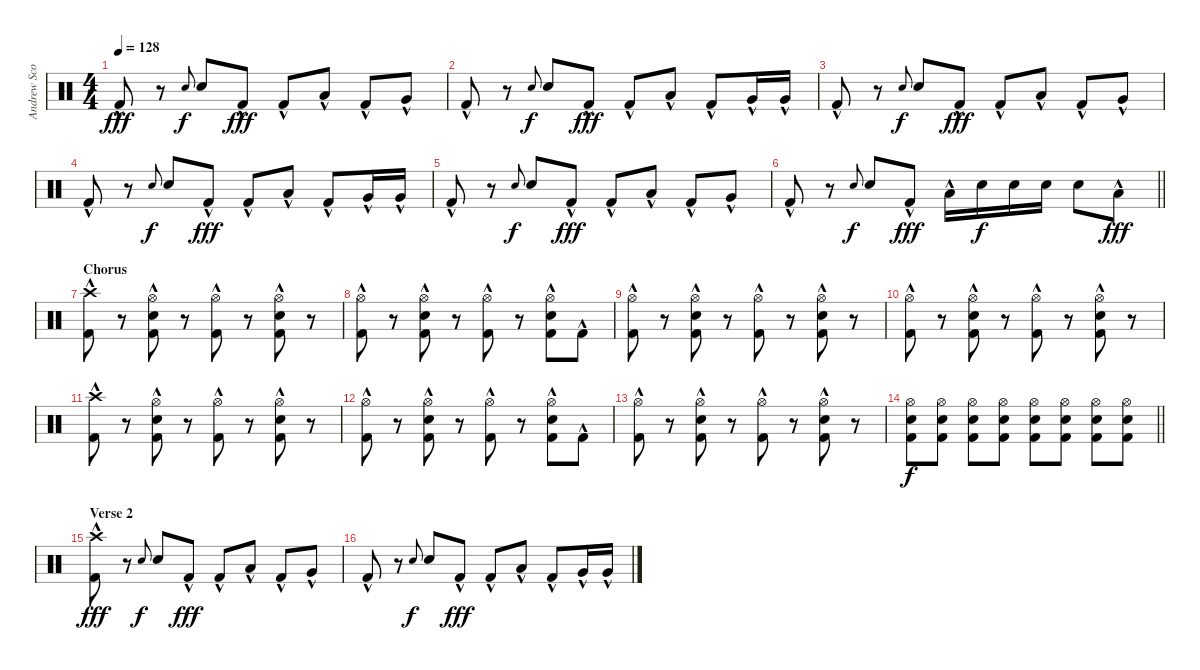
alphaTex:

\track ("Andrew Scott" "Andrew Sco") {instrument percussion}
\staff {score}
\articulation defaults
\ts (4 4)
\tempo 128
\clef neutral
\ks c "Kick (hit) 2"{hac}.8{dy fff}
r.8 "Snare (hit) 2".8{gr onbeat dy f} "Snare (hit) 2".8 "Kick (hit) 2"{hac}.8{dy fff} "Kick (hit) 2"{hac}.8 "Low Tom (hit)"{hac}.8 "Kick (hit) 2"{hac}.8 "Very Low Tom (hit)"{hac}.8 |
"Kick (hit) 2"{hac}.8 r.8 "Snare (hit) 2".8{gr onbeat dy f} "Snare (hit) 2".8 "Kick (hit) 2"{hac}.8{dy fff} "Kick (hit) 2"{hac}.8 "Low Tom (hit)"{hac}.8 "Kick (hit) 2"{hac}.8 "Very Low Tom (hit)"{hac}.16 "Very Low Tom (hit)"{hac}.16 |
"Kick (hit) 2"{hac}.8 r.8 "Snare (hit) 2".8{gr onbeat dy f} "Snare (hit) 2".8 "Kick (hit) 2"{hac}.8{dy fff} "Kick (hit) 2"{hac}.8 "Low Tom (hit)"{hac}.8 "Kick (hit) 2"{hac}.8 "Very Low Tom (hit)"{hac}.8 |
"Kick (hit) 2"{hac}.8 r.8 "Snare (hit) 2".8{gr onbeat dy f} "Snare (hit) 2".8 "Kick (hit) 2"{hac}.8{dy fff} "Kick (hit) 2"{hac}.8 "Low Tom (hit)"{hac}.8 "Kick (hit) 2"{hac}.8 "Very Low Tom (hit)"{hac}.16 "Very Low Tom (hit)"{hac}.16 |
"Kick (hit) 2"{hac}.8 r.8 "Snare (hit) 2".8{gr onbeat dy f} "Snare (hit) 2".8 "Kick (hit) 2"{hac}.8{dy fff} "Kick (hit) 2"{hac}.8 "Low Tom (hit)"{hac}.8 "Kick (hit) 2"{hac}.8 "Very Low Tom (hit)"{hac}.8 |
\barLineRight lightlight "Kick (hit) 2"{hac}.8
r.8 "Snare (hit) 2".8{gr onbeat dy f} "Snare (hit) 2".8 "Kick (hit) 2"{hac}.8{dy fff} "Low Tom (hit)"{hac}.16 "Snare (hit) 2".16{dy f} "Snare (hit) 2".16 "Snare (hit) 2".16 "Snare (hit) 2".8 "Low Tom (hit)"{hac}.8{dy fff} |
\section ("" "Chorus")
("Crash high (hit)" "Kick (hit) 2"{hac}).8 r.8 ("Hi-Hat (open)" "Snare (hit) 2" "Kick (hit) 2"{hac}).8 r.8 ("Hi-Hat (open)" "Kick (hit) 2"{hac}).8 r.8 ("Hi-Hat (open)" "Snare (hit) 2" "Kick (hit) 2"{hac}).8 r.8 |
("Hi-Hat (open)" "Kick (hit) 2"{hac}).8 r.8 ("Hi-Hat (open)" "Snare (hit) 2" "Kick (hit) 2"{hac}).8 r.8 ("Hi-Hat (open)" "Kick (hit) 2"{hac}).8 r.8 ("Hi-Hat (open)" "Snare (hit) 2" "Kick (hit) 2"{hac}).8 "Kick (hit) 2"{hac}.8 |
("Hi-Hat (open)" "Kick (hit) 2"{hac}).8 r.8 ("Hi-Hat (open)" "Snare (hit) 2" "Kick (hit) 2"{hac}).8 r.8 ("Hi-Hat (open)" "Kick (hit) 2"{hac}).8 r.8 ("Hi-Hat (open)" "Snare (hit) 2" "Kick (hit) 2"{hac}).8 r.8 |
("Hi-Hat (open)" "Kick (hit) 2"{hac}).8 r.8 ("Hi-Hat (open)" "Snare (hit) 2" "Kick (hit) 2"{hac}).8 r.8 ("Hi-Hat (open)" "Kick (hit) 2"{hac}).8 r.8 ("Hi-Hat (open)" "Snare (hit) 2" "Kick (hit) 2"{hac}).8 r.8 |
("Crash high (hit)" "Kick (hit) 2"{hac}).8 r.8 ("Hi-Hat (open)" "Snare (hit) 2" "Kick (hit) 2"{hac}).8 r.8 ("Hi-Hat (open)" "Kick (hit) 2"{hac}).8 r.8 ("Hi-Hat (open)" "Snare (hit) 2" "Kick (hit) 2"{hac}).8 r.8 |
("Hi-Hat (open)" "Kick (hit) 2"{hac}).8 r.8 ("Hi-Hat (open)" "Snare (hit) 2" "Kick (hit) 2"{hac}).8 r.8 ("Hi-Hat (open)" "Kick (hit) 2"{hac}).8 r.8 ("Hi-Hat (open)" "Snare (hit) 2" "Kick (hit) 2"{hac}).8 "Kick (hit) 2"{hac}.8 |
("Hi-Hat (open)" "Kick (hit) 2"{hac}).8 r.8 ("Hi-Hat (open)" "Snare (hit) 2" "Kick (hit) 2"{hac}).8 r.8 ("Hi-Hat (open)" "Kick (hit) 2"{hac}).8 r.8 ("Hi-Hat (open)" "Snare (hit) 2" "Kick (hit) 2"{hac}).8 r.8{volume 3} |
\barLineRight lightlight
("Hi-Hat (open)" "Snare (hit) 2" "Kick (hit) 2").8{dy f volume 8} ("Hi-Hat (open)" "Snare (hit) 2" "Kick (hit) 2").8 ("Hi-Hat (open)" "Snare (hit) 2" "Kick (hit) 2").8 ("Hi-Hat (open)" "Snare (hit) 2" "Kick (hit) 2").8 ("Hi-Hat (open)" "Snare (hit) 2" "Kick (hit) 2").8 ("Hi-Hat (open)" "Snare (hit) 2" "Kick (hit) 2").8 ("Hi-Hat (open)" "Snare (hit) 2" "Kick (hit) 2").8 ("Hi-Hat (open)" "Snare (hit) 2" "Kick (hit) 2").8 |
\section ("" "Verse 2")
("Crash high (hit)" "Kick (hit) 2"{hac}).8{dy fff} r.8 "Snare (hit) 2".8{gr onbeat dy f} "Snare (hit) 2".8 "Kick (hit) 2"{hac}.8{dy fff} "Kick (hit) 2"{hac}.8 "Low Tom (hit)"{hac}.8 "Kick (hit) 2"{hac}.8 "Very Low Tom (hit)"{hac}.8 |
"Kick (hit) 2"{hac}.8 r.8 "Snare (hit) 2".8{gr onbeat dy f} "Snare (hit) 2".8 "Kick (hit) 2"{hac}.8{dy fff} "Kick (hit) 2"{hac}.8 "Low Tom (hit)"{hac}.8 "Kick (hit) 2"{hac}.8 "Very Low Tom (hit)"{hac}.16 "Very Low Tom (hit)"{hac}.16
